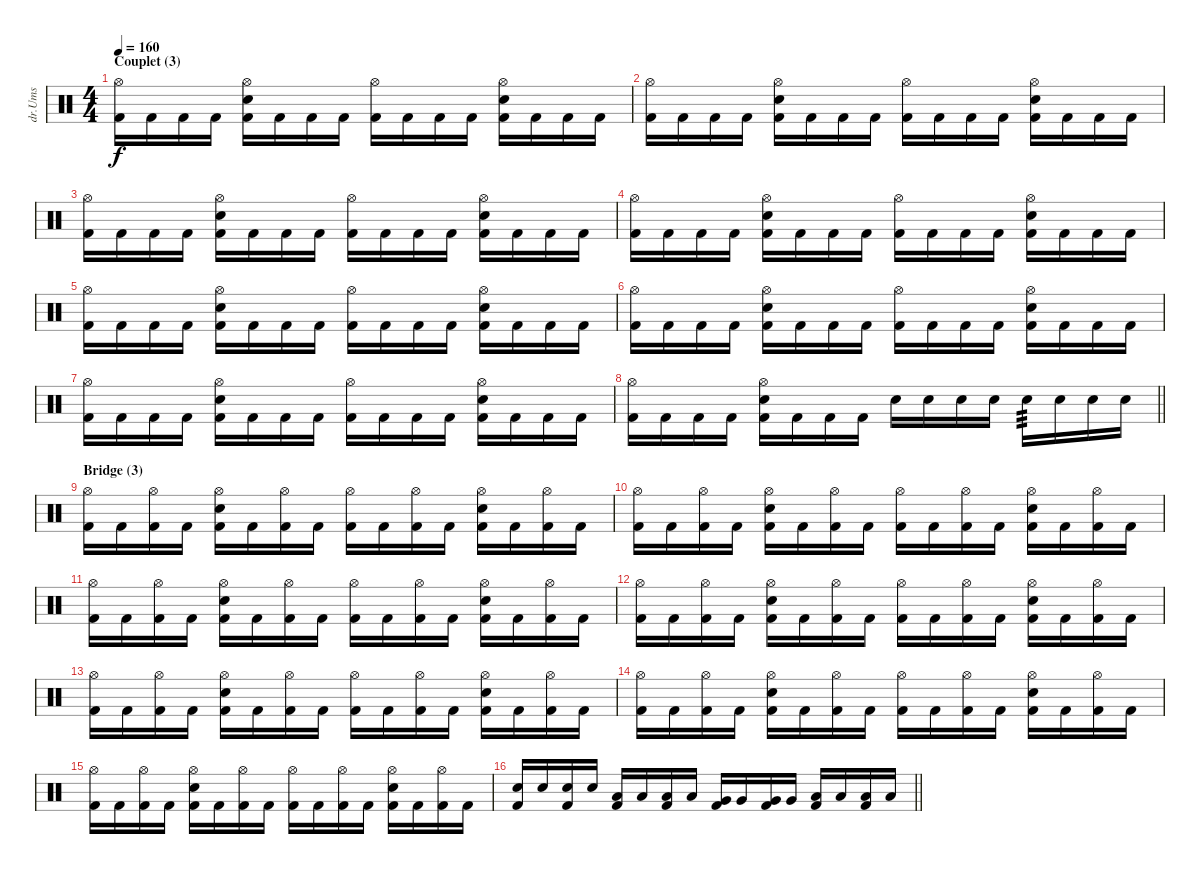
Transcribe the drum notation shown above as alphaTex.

\track ("dr.Ums" "dr.Ums") {instrument percussion}
\staff {score}
\articulation defaults
\ts (4 4)
\section ("" "Couplet (3)")
\tempo 160
\clef neutral
\ks c
("Hi-Hat (open)" "Kick (hit) 2").16{dy f} "Kick (hit) 2".16 "Kick (hit) 2".16 "Kick (hit) 2".16 ("Snare (hit) 2" "Hi-Hat (open)" "Kick (hit) 2").16 "Kick (hit) 2".16 "Kick (hit) 2".16 "Kick (hit) 2".16 ("Hi-Hat (open)" "Kick (hit) 2").16 "Kick (hit) 2".16 "Kick (hit) 2".16 "Kick (hit) 2".16 ("Snare (hit) 2" "Hi-Hat (open)" "Kick (hit) 2").16 "Kick (hit) 2".16 "Kick (hit) 2".16 "Kick (hit) 2".16 |
("Hi-Hat (open)" "Kick (hit) 2").16 "Kick (hit) 2".16 "Kick (hit) 2".16 "Kick (hit) 2".16 ("Snare (hit) 2" "Hi-Hat (open)" "Kick (hit) 2").16 "Kick (hit) 2".16 "Kick (hit) 2".16 "Kick (hit) 2".16 ("Hi-Hat (open)" "Kick (hit) 2").16 "Kick (hit) 2".16 "Kick (hit) 2".16 "Kick (hit) 2".16 ("Snare (hit) 2" "Hi-Hat (open)" "Kick (hit) 2").16 "Kick (hit) 2".16 "Kick (hit) 2".16 "Kick (hit) 2".16 |
("Hi-Hat (open)" "Kick (hit) 2").16 "Kick (hit) 2".16 "Kick (hit) 2".16 "Kick (hit) 2".16 ("Snare (hit) 2" "Hi-Hat (open)" "Kick (hit) 2").16 "Kick (hit) 2".16 "Kick (hit) 2".16 "Kick (hit) 2".16 ("Hi-Hat (open)" "Kick (hit) 2").16 "Kick (hit) 2".16 "Kick (hit) 2".16 "Kick (hit) 2".16 ("Snare (hit) 2" "Hi-Hat (open)" "Kick (hit) 2").16 "Kick (hit) 2".16 "Kick (hit) 2".16 "Kick (hit) 2".16 |
("Hi-Hat (open)" "Kick (hit) 2").16 "Kick (hit) 2".16 "Kick (hit) 2".16 "Kick (hit) 2".16 ("Snare (hit) 2" "Hi-Hat (open)" "Kick (hit) 2").16 "Kick (hit) 2".16 "Kick (hit) 2".16 "Kick (hit) 2".16 ("Hi-Hat (open)" "Kick (hit) 2").16 "Kick (hit) 2".16 "Kick (hit) 2".16 "Kick (hit) 2".16 ("Snare (hit) 2" "Hi-Hat (open)" "Kick (hit) 2").16 "Kick (hit) 2".16 "Kick (hit) 2".16 "Kick (hit) 2".16 |
("Hi-Hat (open)" "Kick (hit) 2").16 "Kick (hit) 2".16 "Kick (hit) 2".16 "Kick (hit) 2".16 ("Snare (hit) 2" "Hi-Hat (open)" "Kick (hit) 2").16 "Kick (hit) 2".16 "Kick (hit) 2".16 "Kick (hit) 2".16 ("Hi-Hat (open)" "Kick (hit) 2").16 "Kick (hit) 2".16 "Kick (hit) 2".16 "Kick (hit) 2".16 ("Snare (hit) 2" "Hi-Hat (open)" "Kick (hit) 2").16 "Kick (hit) 2".16 "Kick (hit) 2".16 "Kick (hit) 2".16 |
("Hi-Hat (open)" "Kick (hit) 2").16 "Kick (hit) 2".16 "Kick (hit) 2".16 "Kick (hit) 2".16 ("Snare (hit) 2" "Hi-Hat (open)" "Kick (hit) 2").16 "Kick (hit) 2".16 "Kick (hit) 2".16 "Kick (hit) 2".16 ("Hi-Hat (open)" "Kick (hit) 2").16 "Kick (hit) 2".16 "Kick (hit) 2".16 "Kick (hit) 2".16 ("Snare (hit) 2" "Hi-Hat (open)" "Kick (hit) 2").16 "Kick (hit) 2".16 "Kick (hit) 2".16 "Kick (hit) 2".16 |
("Hi-Hat (open)" "Kick (hit) 2").16 "Kick (hit) 2".16 "Kick (hit) 2".16 "Kick (hit) 2".16 ("Snare (hit) 2" "Hi-Hat (open)" "Kick (hit) 2").16 "Kick (hit) 2".16 "Kick (hit) 2".16 "Kick (hit) 2".16 ("Hi-Hat (open)" "Kick (hit) 2").16 "Kick (hit) 2".16 "Kick (hit) 2".16 "Kick (hit) 2".16 ("Snare (hit) 2" "Hi-Hat (open)" "Kick (hit) 2").16 "Kick (hit) 2".16 "Kick (hit) 2".16 "Kick (hit) 2".16 |
\barLineRight lightlight
("Hi-Hat (open)" "Kick (hit) 2").16 "Kick (hit) 2".16 "Kick (hit) 2".16 "Kick (hit) 2".16 ("Snare (hit) 2" "Hi-Hat (open)" "Kick (hit) 2").16 "Kick (hit) 2".16 "Kick (hit) 2".16 "Kick (hit) 2".16 "Snare (hit) 2".16 "Snare (hit) 2".16 "Snare (hit) 2".16 "Snare (hit) 2".16 "Snare (hit) 2".16{tp 3} "Snare (hit) 2".16 "Snare (hit) 2".16 "Snare (hit) 2".16 |
\section ("" "Bridge (3)")
("Kick (hit) 2" "Hi-Hat (open)").16 "Kick (hit) 2".16 ("Kick (hit) 2" "Hi-Hat (open)").16 "Kick (hit) 2".16 ("Kick (hit) 2" "Hi-Hat (open)" "Snare (hit) 2").16 "Kick (hit) 2".16 ("Kick (hit) 2" "Hi-Hat (open)").16 "Kick (hit) 2".16 ("Kick (hit) 2" "Hi-Hat (open)").16 "Kick (hit) 2".16 ("Kick (hit) 2" "Hi-Hat (open)").16 "Kick (hit) 2".16 ("Kick (hit) 2" "Hi-Hat (open)" "Snare (hit) 2").16 "Kick (hit) 2".16 ("Kick (hit) 2" "Hi-Hat (open)").16 "Kick (hit) 2".16 |
("Kick (hit) 2" "Hi-Hat (open)").16 "Kick (hit) 2".16 ("Kick (hit) 2" "Hi-Hat (open)").16 "Kick (hit) 2".16 ("Kick (hit) 2" "Hi-Hat (open)" "Snare (hit) 2").16 "Kick (hit) 2".16 ("Kick (hit) 2" "Hi-Hat (open)").16 "Kick (hit) 2".16 ("Kick (hit) 2" "Hi-Hat (open)").16 "Kick (hit) 2".16 ("Kick (hit) 2" "Hi-Hat (open)").16 "Kick (hit) 2".16 ("Kick (hit) 2" "Hi-Hat (open)" "Snare (hit) 2").16 "Kick (hit) 2".16 ("Kick (hit) 2" "Hi-Hat (open)").16 "Kick (hit) 2".16 |
("Kick (hit) 2" "Hi-Hat (open)").16 "Kick (hit) 2".16 ("Kick (hit) 2" "Hi-Hat (open)").16 "Kick (hit) 2".16 ("Kick (hit) 2" "Hi-Hat (open)" "Snare (hit) 2").16 "Kick (hit) 2".16 ("Kick (hit) 2" "Hi-Hat (open)").16 "Kick (hit) 2".16 ("Kick (hit) 2" "Hi-Hat (open)").16 "Kick (hit) 2".16 ("Kick (hit) 2" "Hi-Hat (open)").16 "Kick (hit) 2".16 ("Kick (hit) 2" "Hi-Hat (open)" "Snare (hit) 2").16 "Kick (hit) 2".16 ("Kick (hit) 2" "Hi-Hat (open)").16 "Kick (hit) 2".16 |
("Kick (hit) 2" "Hi-Hat (open)").16 "Kick (hit) 2".16 ("Kick (hit) 2" "Hi-Hat (open)").16 "Kick (hit) 2".16 ("Kick (hit) 2" "Hi-Hat (open)" "Snare (hit) 2").16 "Kick (hit) 2".16 ("Kick (hit) 2" "Hi-Hat (open)").16 "Kick (hit) 2".16 ("Kick (hit) 2" "Hi-Hat (open)").16 "Kick (hit) 2".16 ("Kick (hit) 2" "Hi-Hat (open)").16 "Kick (hit) 2".16 ("Kick (hit) 2" "Hi-Hat (open)" "Snare (hit) 2").16 "Kick (hit) 2".16 ("Kick (hit) 2" "Hi-Hat (open)").16 "Kick (hit) 2".16 |
("Kick (hit) 2" "Hi-Hat (open)").16 "Kick (hit) 2".16 ("Kick (hit) 2" "Hi-Hat (open)").16 "Kick (hit) 2".16 ("Kick (hit) 2" "Hi-Hat (open)" "Snare (hit) 2").16 "Kick (hit) 2".16 ("Kick (hit) 2" "Hi-Hat (open)").16 "Kick (hit) 2".16 ("Kick (hit) 2" "Hi-Hat (open)").16 "Kick (hit) 2".16 ("Kick (hit) 2" "Hi-Hat (open)").16 "Kick (hit) 2".16 ("Kick (hit) 2" "Hi-Hat (open)" "Snare (hit) 2").16 "Kick (hit) 2".16 ("Kick (hit) 2" "Hi-Hat (open)").16 "Kick (hit) 2".16 |
("Kick (hit) 2" "Hi-Hat (open)").16 "Kick (hit) 2".16 ("Kick (hit) 2" "Hi-Hat (open)").16 "Kick (hit) 2".16 ("Kick (hit) 2" "Hi-Hat (open)" "Snare (hit) 2").16 "Kick (hit) 2".16 ("Kick (hit) 2" "Hi-Hat (open)").16 "Kick (hit) 2".16 ("Kick (hit) 2" "Hi-Hat (open)").16 "Kick (hit) 2".16 ("Kick (hit) 2" "Hi-Hat (open)").16 "Kick (hit) 2".16 ("Kick (hit) 2" "Hi-Hat (open)" "Snare (hit) 2").16 "Kick (hit) 2".16 ("Kick (hit) 2" "Hi-Hat (open)").16 "Kick (hit) 2".16 |
("Kick (hit) 2" "Hi-Hat (open)").16 "Kick (hit) 2".16 ("Kick (hit) 2" "Hi-Hat (open)").16 "Kick (hit) 2".16 ("Kick (hit) 2" "Hi-Hat (open)" "Snare (hit) 2").16 "Kick (hit) 2".16 ("Kick (hit) 2" "Hi-Hat (open)").16 "Kick (hit) 2".16 ("Kick (hit) 2" "Hi-Hat (open)").16 "Kick (hit) 2".16 ("Kick (hit) 2" "Hi-Hat (open)").16 "Kick (hit) 2".16 ("Kick (hit) 2" "Hi-Hat (open)" "Snare (hit) 2").16 "Kick (hit) 2".16 ("Kick (hit) 2" "Hi-Hat (open)").16 "Kick (hit) 2".16 |
\barLineRight lightlight
("Snare (hit) 2" "Kick (hit) 2").16 "Snare (hit) 2".16 ("Snare (hit) 2" "Kick (hit) 2").16 "Snare (hit) 2".16 ("Low Tom (hit)" "Kick (hit) 2").16 "Low Tom (hit)".16 ("Low Tom (hit)" "Kick (hit) 2").16 "Low Tom (hit)".16 ("Very Low Tom (hit)" "Kick (hit) 2").16 "Very Low Tom (hit)".16 ("Very Low Tom (hit)" "Kick (hit) 2").16 "Very Low Tom (hit)".16 ("Low Floor Tom (hit)" "Kick (hit) 2").16 "Low Floor Tom (hit)".16 ("Low Floor Tom (hit)" "Kick (hit) 2").16 "Low Floor Tom (hit)".16
